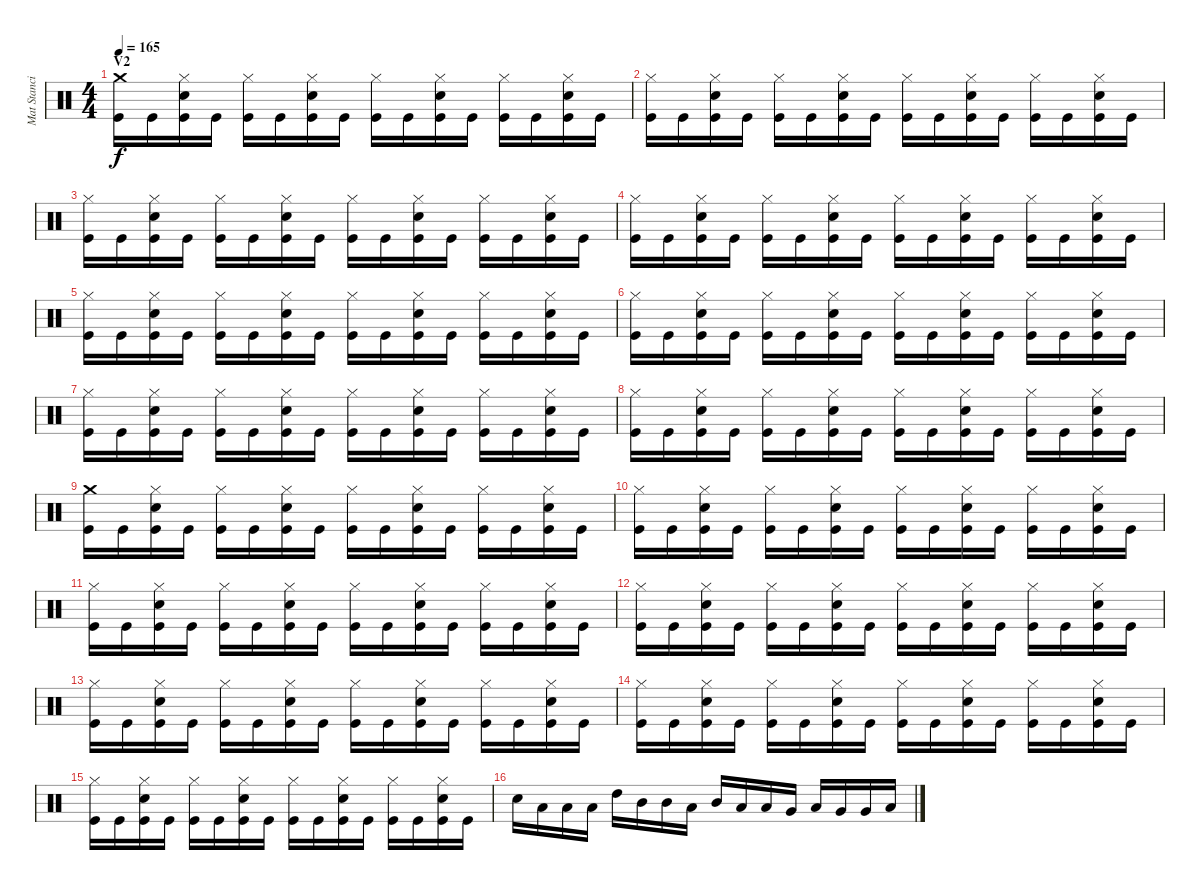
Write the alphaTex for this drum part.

\track ("Mat Stancioiu (Drums)" "Mat Stanci") {instrument percussion}
\staff {score}
\articulation defaults
\ts (4 4)
\section ("" "V2")
\tempo 165
\clef neutral
\ks c
("Crash medium (hit)" "Kick (hit)").16{dy f} "Kick (hit)".16 ("Hi-Hat (closed)" "Electric Snare (hit)" "Kick (hit)").16 "Kick (hit)".16 ("Hi-Hat (closed)" "Kick (hit)").16 "Kick (hit)".16 ("Hi-Hat (closed)" "Electric Snare (hit)" "Kick (hit)").16 "Kick (hit)".16 ("Hi-Hat (closed)" "Kick (hit)").16 "Kick (hit)".16 ("Hi-Hat (closed)" "Electric Snare (hit)" "Kick (hit)").16 "Kick (hit)".16 ("Hi-Hat (closed)" "Kick (hit)").16 "Kick (hit)".16 ("Hi-Hat (closed)" "Electric Snare (hit)" "Kick (hit)").16 "Kick (hit)".16 |
("Hi-Hat (closed)" "Kick (hit)").16 "Kick (hit)".16 ("Hi-Hat (closed)" "Electric Snare (hit)" "Kick (hit)").16 "Kick (hit)".16 ("Hi-Hat (closed)" "Kick (hit)").16 "Kick (hit)".16 ("Hi-Hat (closed)" "Electric Snare (hit)" "Kick (hit)").16 "Kick (hit)".16 ("Hi-Hat (closed)" "Kick (hit)").16 "Kick (hit)".16 ("Hi-Hat (closed)" "Electric Snare (hit)" "Kick (hit)").16 "Kick (hit)".16 ("Hi-Hat (closed)" "Kick (hit)").16 "Kick (hit)".16 ("Hi-Hat (closed)" "Electric Snare (hit)" "Kick (hit)").16 "Kick (hit)".16 |
("Hi-Hat (closed)" "Kick (hit)").16 "Kick (hit)".16 ("Hi-Hat (closed)" "Electric Snare (hit)" "Kick (hit)").16 "Kick (hit)".16 ("Hi-Hat (closed)" "Kick (hit)").16 "Kick (hit)".16 ("Hi-Hat (closed)" "Electric Snare (hit)" "Kick (hit)").16 "Kick (hit)".16 ("Hi-Hat (closed)" "Kick (hit)").16 "Kick (hit)".16 ("Hi-Hat (closed)" "Electric Snare (hit)" "Kick (hit)").16 "Kick (hit)".16 ("Hi-Hat (closed)" "Kick (hit)").16 "Kick (hit)".16 ("Hi-Hat (closed)" "Electric Snare (hit)" "Kick (hit)").16 "Kick (hit)".16 |
("Hi-Hat (closed)" "Kick (hit)").16 "Kick (hit)".16 ("Hi-Hat (closed)" "Electric Snare (hit)" "Kick (hit)").16 "Kick (hit)".16 ("Hi-Hat (closed)" "Kick (hit)").16 "Kick (hit)".16 ("Hi-Hat (closed)" "Electric Snare (hit)" "Kick (hit)").16 "Kick (hit)".16 ("Hi-Hat (closed)" "Kick (hit)").16 "Kick (hit)".16 ("Hi-Hat (closed)" "Electric Snare (hit)" "Kick (hit)").16 "Kick (hit)".16 ("Hi-Hat (closed)" "Kick (hit)").16 "Kick (hit)".16 ("Hi-Hat (closed)" "Electric Snare (hit)" "Kick (hit)").16 "Kick (hit)".16 |
("Hi-Hat (closed)" "Kick (hit)").16 "Kick (hit)".16 ("Hi-Hat (closed)" "Electric Snare (hit)" "Kick (hit)").16 "Kick (hit)".16 ("Hi-Hat (closed)" "Kick (hit)").16 "Kick (hit)".16 ("Hi-Hat (closed)" "Electric Snare (hit)" "Kick (hit)").16 "Kick (hit)".16 ("Hi-Hat (closed)" "Kick (hit)").16 "Kick (hit)".16 ("Hi-Hat (closed)" "Electric Snare (hit)" "Kick (hit)").16 "Kick (hit)".16 ("Hi-Hat (closed)" "Kick (hit)").16 "Kick (hit)".16 ("Hi-Hat (closed)" "Electric Snare (hit)" "Kick (hit)").16 "Kick (hit)".16 |
("Hi-Hat (closed)" "Kick (hit)").16 "Kick (hit)".16 ("Hi-Hat (closed)" "Electric Snare (hit)" "Kick (hit)").16 "Kick (hit)".16 ("Hi-Hat (closed)" "Kick (hit)").16 "Kick (hit)".16 ("Hi-Hat (closed)" "Electric Snare (hit)" "Kick (hit)").16 "Kick (hit)".16 ("Hi-Hat (closed)" "Kick (hit)").16 "Kick (hit)".16 ("Hi-Hat (closed)" "Electric Snare (hit)" "Kick (hit)").16 "Kick (hit)".16 ("Hi-Hat (closed)" "Kick (hit)").16 "Kick (hit)".16 ("Hi-Hat (closed)" "Electric Snare (hit)" "Kick (hit)").16 "Kick (hit)".16 |
("Hi-Hat (closed)" "Kick (hit)").16 "Kick (hit)".16 ("Hi-Hat (closed)" "Electric Snare (hit)" "Kick (hit)").16 "Kick (hit)".16 ("Hi-Hat (closed)" "Kick (hit)").16 "Kick (hit)".16 ("Hi-Hat (closed)" "Electric Snare (hit)" "Kick (hit)").16 "Kick (hit)".16 ("Hi-Hat (closed)" "Kick (hit)").16 "Kick (hit)".16 ("Hi-Hat (closed)" "Electric Snare (hit)" "Kick (hit)").16 "Kick (hit)".16 ("Hi-Hat (closed)" "Kick (hit)").16 "Kick (hit)".16 ("Hi-Hat (closed)" "Electric Snare (hit)" "Kick (hit)").16 "Kick (hit)".16 |
("Hi-Hat (closed)" "Kick (hit)").16 "Kick (hit)".16 ("Hi-Hat (closed)" "Electric Snare (hit)" "Kick (hit)").16 "Kick (hit)".16 ("Hi-Hat (closed)" "Kick (hit)").16 "Kick (hit)".16 ("Hi-Hat (closed)" "Electric Snare (hit)" "Kick (hit)").16 "Kick (hit)".16 ("Hi-Hat (closed)" "Kick (hit)").16 "Kick (hit)".16 ("Hi-Hat (closed)" "Electric Snare (hit)" "Kick (hit)").16 "Kick (hit)".16 ("Hi-Hat (closed)" "Kick (hit)").16 "Kick (hit)".16 ("Hi-Hat (closed)" "Electric Snare (hit)" "Kick (hit)").16 "Kick (hit)".16 |
("Crash medium (hit)" "Kick (hit)").16 "Kick (hit)".16 ("Hi-Hat (closed)" "Electric Snare (hit)" "Kick (hit)").16 "Kick (hit)".16 ("Hi-Hat (closed)" "Kick (hit)").16 "Kick (hit)".16 ("Hi-Hat (closed)" "Electric Snare (hit)" "Kick (hit)").16 "Kick (hit)".16 ("Hi-Hat (closed)" "Kick (hit)").16 "Kick (hit)".16 ("Hi-Hat (closed)" "Electric Snare (hit)" "Kick (hit)").16 "Kick (hit)".16 ("Hi-Hat (closed)" "Kick (hit)").16 "Kick (hit)".16 ("Hi-Hat (closed)" "Electric Snare (hit)" "Kick (hit)").16 "Kick (hit)".16 |
("Hi-Hat (closed)" "Kick (hit)").16 "Kick (hit)".16 ("Hi-Hat (closed)" "Electric Snare (hit)" "Kick (hit)").16 "Kick (hit)".16 ("Hi-Hat (closed)" "Kick (hit)").16 "Kick (hit)".16 ("Hi-Hat (closed)" "Electric Snare (hit)" "Kick (hit)").16 "Kick (hit)".16 ("Hi-Hat (closed)" "Kick (hit)").16 "Kick (hit)".16 ("Hi-Hat (closed)" "Electric Snare (hit)" "Kick (hit)").16 "Kick (hit)".16 ("Hi-Hat (closed)" "Kick (hit)").16 "Kick (hit)".16 ("Hi-Hat (closed)" "Electric Snare (hit)" "Kick (hit)").16 "Kick (hit)".16 |
("Hi-Hat (closed)" "Kick (hit)").16 "Kick (hit)".16 ("Hi-Hat (closed)" "Electric Snare (hit)" "Kick (hit)").16 "Kick (hit)".16 ("Hi-Hat (closed)" "Kick (hit)").16 "Kick (hit)".16 ("Hi-Hat (closed)" "Electric Snare (hit)" "Kick (hit)").16 "Kick (hit)".16 ("Hi-Hat (closed)" "Kick (hit)").16 "Kick (hit)".16 ("Hi-Hat (closed)" "Electric Snare (hit)" "Kick (hit)").16 "Kick (hit)".16 ("Hi-Hat (closed)" "Kick (hit)").16 "Kick (hit)".16 ("Hi-Hat (closed)" "Electric Snare (hit)" "Kick (hit)").16 "Kick (hit)".16 |
("Hi-Hat (closed)" "Kick (hit)").16 "Kick (hit)".16 ("Hi-Hat (closed)" "Electric Snare (hit)" "Kick (hit)").16 "Kick (hit)".16 ("Hi-Hat (closed)" "Kick (hit)").16 "Kick (hit)".16 ("Hi-Hat (closed)" "Electric Snare (hit)" "Kick (hit)").16 "Kick (hit)".16 ("Hi-Hat (closed)" "Kick (hit)").16 "Kick (hit)".16 ("Hi-Hat (closed)" "Electric Snare (hit)" "Kick (hit)").16 "Kick (hit)".16 ("Hi-Hat (closed)" "Kick (hit)").16 "Kick (hit)".16 ("Hi-Hat (closed)" "Electric Snare (hit)" "Kick (hit)").16 "Kick (hit)".16 |
("Hi-Hat (closed)" "Kick (hit)").16 "Kick (hit)".16 ("Hi-Hat (closed)" "Electric Snare (hit)" "Kick (hit)").16 "Kick (hit)".16 ("Hi-Hat (closed)" "Kick (hit)").16 "Kick (hit)".16 ("Hi-Hat (closed)" "Electric Snare (hit)" "Kick (hit)").16 "Kick (hit)".16 ("Hi-Hat (closed)" "Kick (hit)").16 "Kick (hit)".16 ("Hi-Hat (closed)" "Electric Snare (hit)" "Kick (hit)").16 "Kick (hit)".16 ("Hi-Hat (closed)" "Kick (hit)").16 "Kick (hit)".16 ("Hi-Hat (closed)" "Electric Snare (hit)" "Kick (hit)").16 "Kick (hit)".16 |
("Hi-Hat (closed)" "Kick (hit)").16 "Kick (hit)".16 ("Hi-Hat (closed)" "Electric Snare (hit)" "Kick (hit)").16 "Kick (hit)".16 ("Hi-Hat (closed)" "Kick (hit)").16 "Kick (hit)".16 ("Hi-Hat (closed)" "Electric Snare (hit)" "Kick (hit)").16 "Kick (hit)".16 ("Hi-Hat (closed)" "Kick (hit)").16 "Kick (hit)".16 ("Hi-Hat (closed)" "Electric Snare (hit)" "Kick (hit)").16 "Kick (hit)".16 ("Hi-Hat (closed)" "Kick (hit)").16 "Kick (hit)".16 ("Hi-Hat (closed)" "Electric Snare (hit)" "Kick (hit)").16 "Kick (hit)".16 |
("Hi-Hat (closed)" "Kick (hit)").16 "Kick (hit)".16 ("Hi-Hat (closed)" "Electric Snare (hit)" "Kick (hit)").16 "Kick (hit)".16 ("Hi-Hat (closed)" "Kick (hit)").16 "Kick (hit)".16 ("Hi-Hat (closed)" "Electric Snare (hit)" "Kick (hit)").16 "Kick (hit)".16 ("Hi-Hat (closed)" "Kick (hit)").16 "Kick (hit)".16 ("Hi-Hat (closed)" "Electric Snare (hit)" "Kick (hit)").16 "Kick (hit)".16 ("Hi-Hat (closed)" "Kick (hit)").16 "Kick (hit)".16 ("Hi-Hat (closed)" "Electric Snare (hit)" "Kick (hit)").16 "Kick (hit)".16 |
"Electric Snare (hit)".16 "Low Tom (hit)".16 "Low Tom (hit)".16 "Low Tom (hit)".16 "High Tom (hit)".16 "Mid Tom (hit)".16 "Mid Tom (hit)".16 "Low Tom (hit)".16 "Mid Tom (hit)".16 "Low Tom (hit)".16 "Low Tom (hit)".16 "Very Low Tom (hit)".16 "Low Tom (hit)".16 "Very Low Tom (hit)".16 "Very Low Tom (hit)".16 "Low Floor Tom (hit)".16
